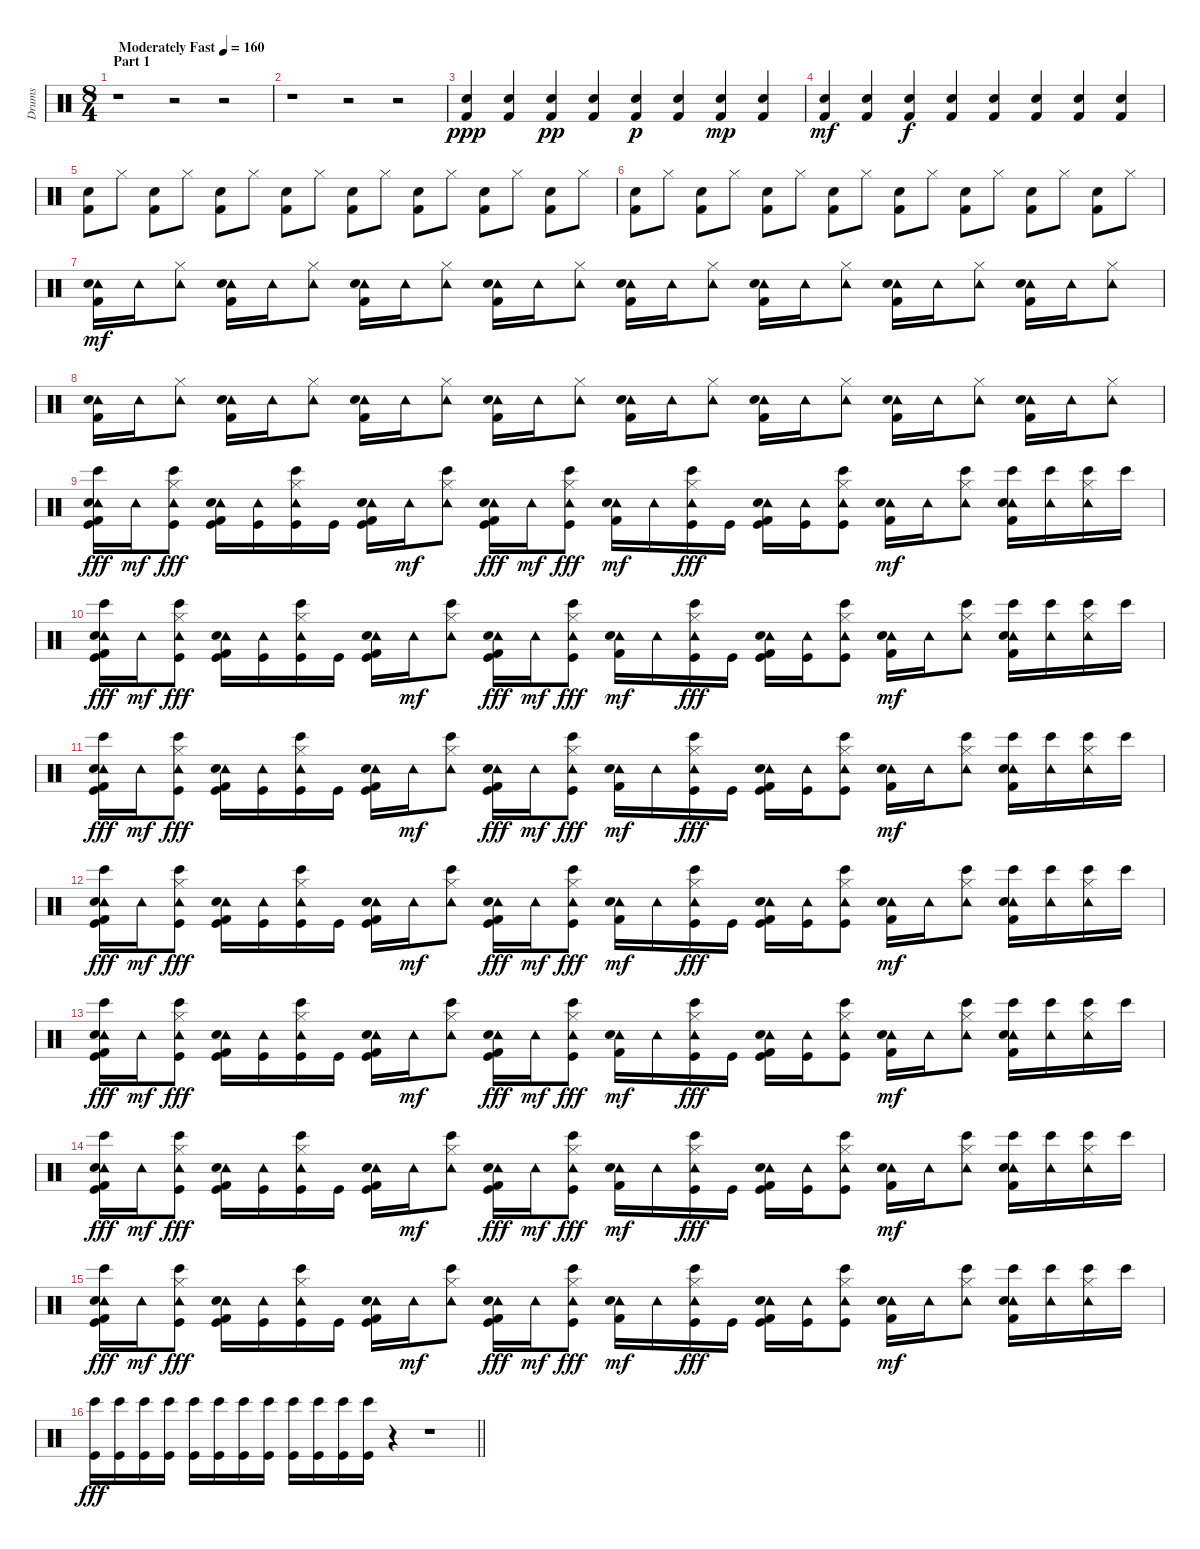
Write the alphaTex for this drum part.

\track ("Drums" "Drums") {instrument percussion}
\staff {score}
\articulation defaults
\ts (8 4)
\section ("" "Part 1")
\tempo (160 "Moderately Fast")
\clef neutral
\ks c
r.1{dy ppp} r.2 r.2 |
r.1 r.2 r.2 |
("Kick (hit) 2" "Hand Clap (hit)").4 ("Kick (hit) 2" "Hand Clap (hit)").4 ("Kick (hit) 2" "Hand Clap (hit)").4{dy pp} ("Kick (hit) 2" "Hand Clap (hit)").4 ("Kick (hit) 2" "Hand Clap (hit)").4{dy p} ("Kick (hit) 2" "Hand Clap (hit)").4 ("Kick (hit) 2" "Hand Clap (hit)").4{dy mp} ("Kick (hit) 2" "Hand Clap (hit)").4 |
("Kick (hit) 2" "Hand Clap (hit)").4{dy mf} ("Kick (hit) 2" "Hand Clap (hit)").4 ("Kick (hit) 2" "Hand Clap (hit)").4{dy f} ("Kick (hit) 2" "Hand Clap (hit)").4 ("Kick (hit) 2" "Hand Clap (hit)").4 ("Kick (hit) 2" "Hand Clap (hit)").4 ("Kick (hit) 2" "Hand Clap (hit)").4 ("Kick (hit) 2" "Hand Clap (hit)").4 |
("Kick (hit) 2" "Hand Clap (hit)").8 "Hi-Hat (closed)".8 ("Kick (hit) 2" "Hand Clap (hit)").8 "Hi-Hat (closed)".8 ("Kick (hit) 2" "Hand Clap (hit)").8 "Hi-Hat (closed)".8 ("Kick (hit) 2" "Hand Clap (hit)").8 "Hi-Hat (closed)".8 ("Kick (hit) 2" "Hand Clap (hit)").8 "Hi-Hat (closed)".8 ("Kick (hit) 2" "Hand Clap (hit)").8 "Hi-Hat (closed)".8 ("Kick (hit) 2" "Hand Clap (hit)").8 "Hi-Hat (closed)".8 ("Kick (hit) 2" "Hand Clap (hit)").8 "Hi-Hat (closed)".8 |
("Kick (hit) 2" "Hand Clap (hit)").8 "Hi-Hat (closed)".8 ("Kick (hit) 2" "Hand Clap (hit)").8 "Hi-Hat (closed)".8 ("Kick (hit) 2" "Hand Clap (hit)").8 "Hi-Hat (closed)".8 ("Kick (hit) 2" "Hand Clap (hit)").8 "Hi-Hat (closed)".8 ("Kick (hit) 2" "Hand Clap (hit)").8 "Hi-Hat (closed)".8 ("Kick (hit) 2" "Hand Clap (hit)").8 "Hi-Hat (closed)".8 ("Kick (hit) 2" "Hand Clap (hit)").8 "Hi-Hat (closed)".8 ("Kick (hit) 2" "Hand Clap (hit)").8 "Hi-Hat (closed)".8 |
("Tambourine (hit)" "Kick (hit) 2" "Hand Clap (hit)").16{dy mf} "Tambourine (hit)".16 ("Tambourine (hit)" "Hi-Hat (closed)").8 ("Tambourine (hit)" "Kick (hit) 2" "Hand Clap (hit)").16 "Tambourine (hit)".16 ("Tambourine (hit)" "Hi-Hat (closed)").8 ("Tambourine (hit)" "Kick (hit) 2" "Hand Clap (hit)").16 "Tambourine (hit)".16 ("Tambourine (hit)" "Hi-Hat (closed)").8 ("Tambourine (hit)" "Kick (hit) 2" "Hand Clap (hit)").16 "Tambourine (hit)".16 ("Tambourine (hit)" "Hi-Hat (closed)").8 ("Tambourine (hit)" "Kick (hit) 2" "Hand Clap (hit)").16 "Tambourine (hit)".16 ("Tambourine (hit)" "Hi-Hat (closed)").8 ("Tambourine (hit)" "Kick (hit) 2" "Hand Clap (hit)").16 "Tambourine (hit)".16 ("Tambourine (hit)" "Hi-Hat (closed)").8 ("Tambourine (hit)" "Kick (hit) 2" "Hand Clap (hit)").16 "Tambourine (hit)".16 ("Tambourine (hit)" "Hi-Hat (closed)").8 ("Tambourine (hit)" "Kick (hit) 2" "Hand Clap (hit)").16 "Tambourine (hit)".16 ("Tambourine (hit)" "Hi-Hat (closed)").8 |
("Tambourine (hit)" "Kick (hit) 2" "Hand Clap (hit)").16 "Tambourine (hit)".16 ("Tambourine (hit)" "Hi-Hat (closed)").8 ("Tambourine (hit)" "Kick (hit) 2" "Hand Clap (hit)").16 "Tambourine (hit)".16 ("Tambourine (hit)" "Hi-Hat (closed)").8 ("Tambourine (hit)" "Kick (hit) 2" "Hand Clap (hit)").16 "Tambourine (hit)".16 ("Tambourine (hit)" "Hi-Hat (closed)").8 ("Tambourine (hit)" "Kick (hit) 2" "Hand Clap (hit)").16 "Tambourine (hit)".16 ("Tambourine (hit)" "Hi-Hat (closed)").8 ("Tambourine (hit)" "Kick (hit) 2" "Hand Clap (hit)").16 "Tambourine (hit)".16 ("Tambourine (hit)" "Hi-Hat (closed)").8 ("Tambourine (hit)" "Kick (hit) 2" "Hand Clap (hit)").16 "Tambourine (hit)".16 ("Tambourine (hit)" "Hi-Hat (closed)").8 ("Tambourine (hit)" "Kick (hit) 2" "Hand Clap (hit)").16 "Tambourine (hit)".16 ("Tambourine (hit)" "Hi-Hat (closed)").8 ("Tambourine (hit)" "Kick (hit) 2" "Hand Clap (hit)").16 "Tambourine (hit)".16 ("Tambourine (hit)" "Hi-Hat (closed)").8 |
("Tambourine (hit)" "Kick (hit) 2" "Hand Clap (hit)" "Bongo High (hit)" "Kick (hit)").16{dy fff} "Tambourine (hit)".16{dy mf} ("Tambourine (hit)" "Hi-Hat (closed)" "Bongo High (hit)" "Kick (hit)").8{dy fff} ("Tambourine (hit)" "Kick (hit) 2" "Hand Clap (hit)" "Kick (hit)").16 ("Tambourine (hit)" "Kick (hit)").16 ("Tambourine (hit)" "Hi-Hat (closed)" "Bongo High (hit)" "Kick (hit)").16 "Kick (hit)".16 ("Tambourine (hit)" "Kick (hit) 2" "Hand Clap (hit)" "Kick (hit)").16 "Tambourine (hit)".16{dy mf} ("Tambourine (hit)" "Hi-Hat (closed)" "Bongo High (hit)").8 ("Tambourine (hit)" "Kick (hit) 2" "Hand Clap (hit)" "Kick (hit)").16{dy fff} "Tambourine (hit)".16{dy mf} ("Tambourine (hit)" "Hi-Hat (closed)" "Bongo High (hit)" "Kick (hit)").8{dy fff} ("Tambourine (hit)" "Kick (hit) 2" "Hand Clap (hit)").16{dy mf} "Tambourine (hit)".16 ("Tambourine (hit)" "Hi-Hat (closed)" "Bongo High (hit)" "Kick (hit)").16{dy fff} "Kick (hit)".16 ("Tambourine (hit)" "Kick (hit) 2" "Hand Clap (hit)" "Kick (hit)").16 ("Tambourine (hit)" "Kick (hit)").16 ("Tambourine (hit)" "Hi-Hat (closed)" "Bongo High (hit)" "Kick (hit)").8 ("Tambourine (hit)" "Kick (hit) 2" "Hand Clap (hit)").16{dy mf} "Tambourine (hit)".16 ("Tambourine (hit)" "Hi-Hat (closed)" "Bongo High (hit)").8 ("Tambourine (hit)" "Kick (hit) 2" "Hand Clap (hit)" "Bongo High (hit)").16 ("Tambourine (hit)" "Bongo High (hit)").16 ("Tambourine (hit)" "Hi-Hat (closed)" "Bongo High (hit)").16 "Bongo High (hit)".16 |
("Tambourine (hit)" "Kick (hit) 2" "Hand Clap (hit)" "Bongo High (hit)" "Kick (hit)").16{dy fff} "Tambourine (hit)".16{dy mf} ("Tambourine (hit)" "Hi-Hat (closed)" "Bongo High (hit)" "Kick (hit)").8{dy fff} ("Tambourine (hit)" "Kick (hit) 2" "Hand Clap (hit)" "Kick (hit)").16 ("Tambourine (hit)" "Kick (hit)").16 ("Tambourine (hit)" "Hi-Hat (closed)" "Bongo High (hit)" "Kick (hit)").16 "Kick (hit)".16 ("Tambourine (hit)" "Kick (hit) 2" "Hand Clap (hit)" "Kick (hit)").16 "Tambourine (hit)".16{dy mf} ("Tambourine (hit)" "Hi-Hat (closed)" "Bongo High (hit)").8 ("Tambourine (hit)" "Kick (hit) 2" "Hand Clap (hit)" "Kick (hit)").16{dy fff} "Tambourine (hit)".16{dy mf} ("Tambourine (hit)" "Hi-Hat (closed)" "Bongo High (hit)" "Kick (hit)").8{dy fff} ("Tambourine (hit)" "Kick (hit) 2" "Hand Clap (hit)").16{dy mf} "Tambourine (hit)".16 ("Tambourine (hit)" "Hi-Hat (closed)" "Bongo High (hit)" "Kick (hit)").16{dy fff} "Kick (hit)".16 ("Tambourine (hit)" "Kick (hit) 2" "Hand Clap (hit)" "Kick (hit)").16 ("Tambourine (hit)" "Kick (hit)").16 ("Tambourine (hit)" "Hi-Hat (closed)" "Bongo High (hit)" "Kick (hit)").8 ("Tambourine (hit)" "Kick (hit) 2" "Hand Clap (hit)").16{dy mf} "Tambourine (hit)".16 ("Tambourine (hit)" "Hi-Hat (closed)" "Bongo High (hit)").8 ("Tambourine (hit)" "Kick (hit) 2" "Hand Clap (hit)" "Bongo High (hit)").16 ("Tambourine (hit)" "Bongo High (hit)").16 ("Tambourine (hit)" "Hi-Hat (closed)" "Bongo High (hit)").16 "Bongo High (hit)".16 |
("Tambourine (hit)" "Kick (hit) 2" "Hand Clap (hit)" "Bongo High (hit)" "Kick (hit)").16{dy fff} "Tambourine (hit)".16{dy mf} ("Tambourine (hit)" "Hi-Hat (closed)" "Bongo High (hit)" "Kick (hit)").8{dy fff} ("Tambourine (hit)" "Kick (hit) 2" "Hand Clap (hit)" "Kick (hit)").16 ("Tambourine (hit)" "Kick (hit)").16 ("Tambourine (hit)" "Hi-Hat (closed)" "Bongo High (hit)" "Kick (hit)").16 "Kick (hit)".16 ("Tambourine (hit)" "Kick (hit) 2" "Hand Clap (hit)" "Kick (hit)").16 "Tambourine (hit)".16{dy mf} ("Tambourine (hit)" "Hi-Hat (closed)" "Bongo High (hit)").8 ("Tambourine (hit)" "Kick (hit) 2" "Hand Clap (hit)" "Kick (hit)").16{dy fff} "Tambourine (hit)".16{dy mf} ("Tambourine (hit)" "Hi-Hat (closed)" "Bongo High (hit)" "Kick (hit)").8{dy fff} ("Tambourine (hit)" "Kick (hit) 2" "Hand Clap (hit)").16{dy mf} "Tambourine (hit)".16 ("Tambourine (hit)" "Hi-Hat (closed)" "Bongo High (hit)" "Kick (hit)").16{dy fff} "Kick (hit)".16 ("Tambourine (hit)" "Kick (hit) 2" "Hand Clap (hit)" "Kick (hit)").16 ("Tambourine (hit)" "Kick (hit)").16 ("Tambourine (hit)" "Hi-Hat (closed)" "Bongo High (hit)" "Kick (hit)").8 ("Tambourine (hit)" "Kick (hit) 2" "Hand Clap (hit)").16{dy mf} "Tambourine (hit)".16 ("Tambourine (hit)" "Hi-Hat (closed)" "Bongo High (hit)").8 ("Tambourine (hit)" "Kick (hit) 2" "Hand Clap (hit)" "Bongo High (hit)").16 ("Tambourine (hit)" "Bongo High (hit)").16 ("Tambourine (hit)" "Hi-Hat (closed)" "Bongo High (hit)").16 "Bongo High (hit)".16 |
("Tambourine (hit)" "Kick (hit) 2" "Hand Clap (hit)" "Bongo High (hit)" "Kick (hit)").16{dy fff} "Tambourine (hit)".16{dy mf} ("Tambourine (hit)" "Hi-Hat (closed)" "Bongo High (hit)" "Kick (hit)").8{dy fff} ("Tambourine (hit)" "Kick (hit) 2" "Hand Clap (hit)" "Kick (hit)").16 ("Tambourine (hit)" "Kick (hit)").16 ("Tambourine (hit)" "Hi-Hat (closed)" "Bongo High (hit)" "Kick (hit)").16 "Kick (hit)".16 ("Tambourine (hit)" "Kick (hit) 2" "Hand Clap (hit)" "Kick (hit)").16 "Tambourine (hit)".16{dy mf} ("Tambourine (hit)" "Hi-Hat (closed)" "Bongo High (hit)").8 ("Tambourine (hit)" "Kick (hit) 2" "Hand Clap (hit)" "Kick (hit)").16{dy fff} "Tambourine (hit)".16{dy mf} ("Tambourine (hit)" "Hi-Hat (closed)" "Bongo High (hit)" "Kick (hit)").8{dy fff} ("Tambourine (hit)" "Kick (hit) 2" "Hand Clap (hit)").16{dy mf} "Tambourine (hit)".16 ("Tambourine (hit)" "Hi-Hat (closed)" "Bongo High (hit)" "Kick (hit)").16{dy fff} "Kick (hit)".16 ("Tambourine (hit)" "Kick (hit) 2" "Hand Clap (hit)" "Kick (hit)").16 ("Tambourine (hit)" "Kick (hit)").16 ("Tambourine (hit)" "Hi-Hat (closed)" "Bongo High (hit)" "Kick (hit)").8 ("Tambourine (hit)" "Kick (hit) 2" "Hand Clap (hit)").16{dy mf} "Tambourine (hit)".16 ("Tambourine (hit)" "Hi-Hat (closed)" "Bongo High (hit)").8 ("Tambourine (hit)" "Kick (hit) 2" "Hand Clap (hit)" "Bongo High (hit)").16 ("Tambourine (hit)" "Bongo High (hit)").16 ("Tambourine (hit)" "Hi-Hat (closed)" "Bongo High (hit)").16 "Bongo High (hit)".16 |
("Tambourine (hit)" "Kick (hit) 2" "Hand Clap (hit)" "Bongo High (hit)" "Kick (hit)").16{dy fff} "Tambourine (hit)".16{dy mf} ("Tambourine (hit)" "Hi-Hat (closed)" "Bongo High (hit)" "Kick (hit)").8{dy fff} ("Tambourine (hit)" "Kick (hit) 2" "Hand Clap (hit)" "Kick (hit)").16 ("Tambourine (hit)" "Kick (hit)").16 ("Tambourine (hit)" "Hi-Hat (closed)" "Bongo High (hit)" "Kick (hit)").16 "Kick (hit)".16 ("Tambourine (hit)" "Kick (hit) 2" "Hand Clap (hit)" "Kick (hit)").16 "Tambourine (hit)".16{dy mf} ("Tambourine (hit)" "Hi-Hat (closed)" "Bongo High (hit)").8 ("Tambourine (hit)" "Kick (hit) 2" "Hand Clap (hit)" "Kick (hit)").16{dy fff} "Tambourine (hit)".16{dy mf} ("Tambourine (hit)" "Hi-Hat (closed)" "Bongo High (hit)" "Kick (hit)").8{dy fff} ("Tambourine (hit)" "Kick (hit) 2" "Hand Clap (hit)").16{dy mf} "Tambourine (hit)".16 ("Tambourine (hit)" "Hi-Hat (closed)" "Bongo High (hit)" "Kick (hit)").16{dy fff} "Kick (hit)".16 ("Tambourine (hit)" "Kick (hit) 2" "Hand Clap (hit)" "Kick (hit)").16 ("Tambourine (hit)" "Kick (hit)").16 ("Tambourine (hit)" "Hi-Hat (closed)" "Bongo High (hit)" "Kick (hit)").8 ("Tambourine (hit)" "Kick (hit) 2" "Hand Clap (hit)").16{dy mf} "Tambourine (hit)".16 ("Tambourine (hit)" "Hi-Hat (closed)" "Bongo High (hit)").8 ("Tambourine (hit)" "Kick (hit) 2" "Hand Clap (hit)" "Bongo High (hit)").16 ("Tambourine (hit)" "Bongo High (hit)").16 ("Tambourine (hit)" "Hi-Hat (closed)" "Bongo High (hit)").16 "Bongo High (hit)".16 |
("Tambourine (hit)" "Kick (hit) 2" "Hand Clap (hit)" "Bongo High (hit)" "Kick (hit)").16{dy fff} "Tambourine (hit)".16{dy mf} ("Tambourine (hit)" "Hi-Hat (closed)" "Bongo High (hit)" "Kick (hit)").8{dy fff} ("Tambourine (hit)" "Kick (hit) 2" "Hand Clap (hit)" "Kick (hit)").16 ("Tambourine (hit)" "Kick (hit)").16 ("Tambourine (hit)" "Hi-Hat (closed)" "Bongo High (hit)" "Kick (hit)").16 "Kick (hit)".16 ("Tambourine (hit)" "Kick (hit) 2" "Hand Clap (hit)" "Kick (hit)").16 "Tambourine (hit)".16{dy mf} ("Tambourine (hit)" "Hi-Hat (closed)" "Bongo High (hit)").8 ("Tambourine (hit)" "Kick (hit) 2" "Hand Clap (hit)" "Kick (hit)").16{dy fff} "Tambourine (hit)".16{dy mf} ("Tambourine (hit)" "Hi-Hat (closed)" "Bongo High (hit)" "Kick (hit)").8{dy fff} ("Tambourine (hit)" "Kick (hit) 2" "Hand Clap (hit)").16{dy mf} "Tambourine (hit)".16 ("Tambourine (hit)" "Hi-Hat (closed)" "Bongo High (hit)" "Kick (hit)").16{dy fff} "Kick (hit)".16 ("Tambourine (hit)" "Kick (hit) 2" "Hand Clap (hit)" "Kick (hit)").16 ("Tambourine (hit)" "Kick (hit)").16 ("Tambourine (hit)" "Hi-Hat (closed)" "Bongo High (hit)" "Kick (hit)").8 ("Tambourine (hit)" "Kick (hit) 2" "Hand Clap (hit)").16{dy mf} "Tambourine (hit)".16 ("Tambourine (hit)" "Hi-Hat (closed)" "Bongo High (hit)").8 ("Tambourine (hit)" "Kick (hit) 2" "Hand Clap (hit)" "Bongo High (hit)").16 ("Tambourine (hit)" "Bongo High (hit)").16 ("Tambourine (hit)" "Hi-Hat (closed)" "Bongo High (hit)").16 "Bongo High (hit)".16 |
("Tambourine (hit)" "Kick (hit) 2" "Hand Clap (hit)" "Bongo High (hit)" "Kick (hit)").16{dy fff} "Tambourine (hit)".16{dy mf} ("Tambourine (hit)" "Hi-Hat (closed)" "Bongo High (hit)" "Kick (hit)").8{dy fff} ("Tambourine (hit)" "Kick (hit) 2" "Hand Clap (hit)" "Kick (hit)").16 ("Tambourine (hit)" "Kick (hit)").16 ("Tambourine (hit)" "Hi-Hat (closed)" "Bongo High (hit)" "Kick (hit)").16 "Kick (hit)".16 ("Tambourine (hit)" "Kick (hit) 2" "Hand Clap (hit)" "Kick (hit)").16 "Tambourine (hit)".16{dy mf} ("Tambourine (hit)" "Hi-Hat (closed)" "Bongo High (hit)").8 ("Tambourine (hit)" "Kick (hit) 2" "Hand Clap (hit)" "Kick (hit)").16{dy fff} "Tambourine (hit)".16{dy mf} ("Tambourine (hit)" "Hi-Hat (closed)" "Bongo High (hit)" "Kick (hit)").8{dy fff} ("Tambourine (hit)" "Kick (hit) 2" "Hand Clap (hit)").16{dy mf} "Tambourine (hit)".16 ("Tambourine (hit)" "Hi-Hat (closed)" "Bongo High (hit)" "Kick (hit)").16{dy fff} "Kick (hit)".16 ("Tambourine (hit)" "Kick (hit) 2" "Hand Clap (hit)" "Kick (hit)").16 ("Tambourine (hit)" "Kick (hit)").16 ("Tambourine (hit)" "Hi-Hat (closed)" "Bongo High (hit)" "Kick (hit)").8 ("Tambourine (hit)" "Kick (hit) 2" "Hand Clap (hit)").16{dy mf} "Tambourine (hit)".16 ("Tambourine (hit)" "Hi-Hat (closed)" "Bongo High (hit)").8 ("Tambourine (hit)" "Kick (hit) 2" "Hand Clap (hit)" "Bongo High (hit)").16 ("Tambourine (hit)" "Bongo High (hit)").16 ("Tambourine (hit)" "Hi-Hat (closed)" "Bongo High (hit)").16 "Bongo High (hit)".16 |
\barLineRight lightlight
("Kick (hit)" "Bongo High (hit)").16{dy fff} ("Kick (hit)" "Bongo High (hit)").16 ("Kick (hit)" "Bongo High (hit)").16 ("Kick (hit)" "Bongo High (hit)").16 ("Kick (hit)" "Bongo High (hit)").16 ("Kick (hit)" "Bongo High (hit)").16 ("Kick (hit)" "Bongo High (hit)").16 ("Kick (hit)" "Bongo High (hit)").16 ("Kick (hit)" "Bongo High (hit)").16 ("Kick (hit)" "Bongo High (hit)").16 ("Kick (hit)" "Bongo High (hit)").16 ("Kick (hit)" "Bongo High (hit)").16 r.4 r.1
